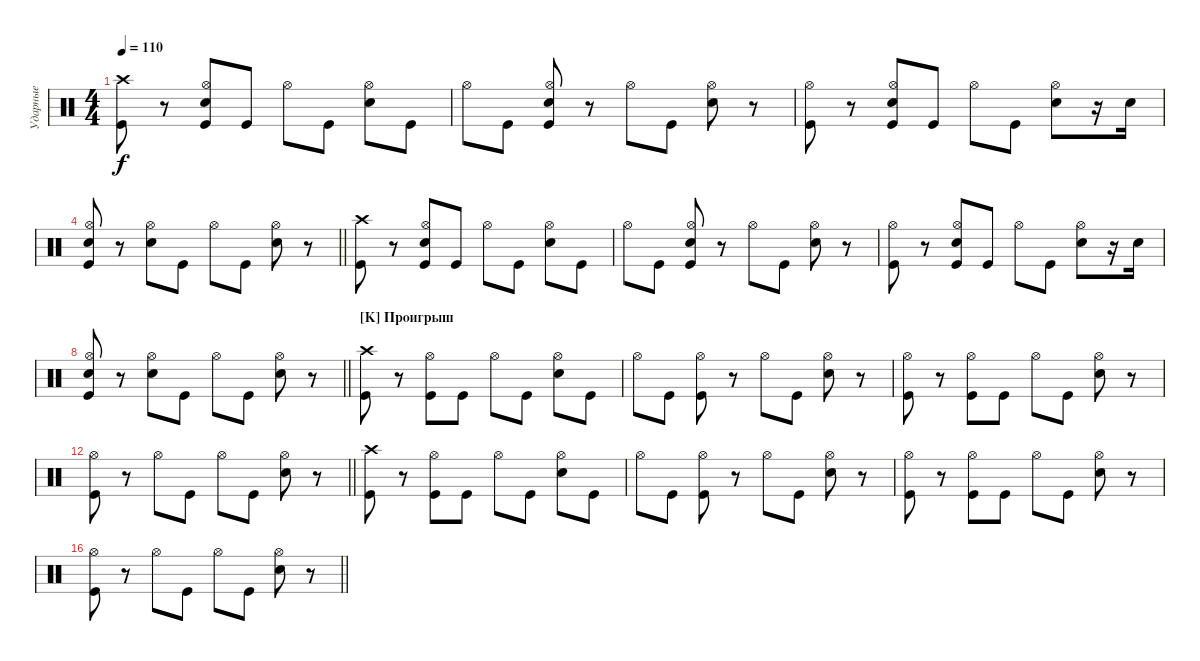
\bracketExtendMode groupsimilarinstruments
\multiTrackTrackNamePolicy hidden
\firstSystemTrackNameMode fullname
\otherSystemsTrackNameMode fullname
\otherSystemsTrackNameOrientation horizontal
\defaultBarNumberDisplay FirstOfSystem
\track ("Ударные" "Drums") {multiBarRest instrument percussion}
\staff {score}
\articulation defaults
\ts (4 4)
\tempo 110
\clef neutral
\ks c
("Crash high (hit)" "Kick (hit)").8{dy f} r.8 ("Hi-Hat (open)" "Snare (hit) 2" "Kick (hit)").8 "Kick (hit)".8 "Hi-Hat (open)".8 "Kick (hit)".8 ("Hi-Hat (open)" "Snare (hit) 2").8 "Kick (hit)".8 |
"Hi-Hat (open)".8 "Kick (hit)".8 ("Hi-Hat (open)" "Snare (hit) 2" "Kick (hit)").8 r.8 "Hi-Hat (open)".8 "Kick (hit)".8 ("Hi-Hat (open)" "Snare (hit) 2").8 r.8 |
("Hi-Hat (open)" "Kick (hit)").8 r.8 ("Hi-Hat (open)" "Snare (hit) 2" "Kick (hit)").8 "Kick (hit)".8 "Hi-Hat (open)".8 "Kick (hit)".8 ("Hi-Hat (open)" "Snare (hit) 2").8 r.16 "Snare (hit) 2".16 |
\barLineRight lightlight
("Hi-Hat (open)" "Snare (hit) 2" "Kick (hit)").8 r.8 ("Hi-Hat (open)" "Snare (hit) 2").8 "Kick (hit)".8 "Hi-Hat (open)".8 "Kick (hit)".8 ("Hi-Hat (open)" "Snare (hit) 2").8 r.8 |
("Crash high (hit)" "Kick (hit)").8 r.8 ("Hi-Hat (open)" "Snare (hit) 2" "Kick (hit)").8 "Kick (hit)".8 "Hi-Hat (open)".8 "Kick (hit)".8 ("Hi-Hat (open)" "Snare (hit) 2").8 "Kick (hit)".8 |
"Hi-Hat (open)".8 "Kick (hit)".8 ("Hi-Hat (open)" "Snare (hit) 2" "Kick (hit)").8 r.8 "Hi-Hat (open)".8 "Kick (hit)".8 ("Hi-Hat (open)" "Snare (hit) 2").8 r.8 |
("Hi-Hat (open)" "Kick (hit)").8 r.8 ("Hi-Hat (open)" "Snare (hit) 2" "Kick (hit)").8 "Kick (hit)".8 "Hi-Hat (open)".8 "Kick (hit)".8 ("Hi-Hat (open)" "Snare (hit) 2").8 r.16 "Snare (hit) 2".16 |
\barLineRight lightlight
("Hi-Hat (open)" "Snare (hit) 2" "Kick (hit)").8 r.8 ("Hi-Hat (open)" "Snare (hit) 2").8 "Kick (hit)".8 "Hi-Hat (open)".8 "Kick (hit)".8 ("Hi-Hat (open)" "Snare (hit) 2").8 r.8 |
\section ("K" "Проигрыш")
("Crash high (hit)" "Kick (hit)").8 r.8 ("Hi-Hat (open)" "Kick (hit)").8 "Kick (hit)".8 "Hi-Hat (open)".8 "Kick (hit)".8 ("Hi-Hat (open)" "Snare (hit) 2").8 "Kick (hit)".8 |
"Hi-Hat (open)".8 "Kick (hit)".8 ("Hi-Hat (open)" "Kick (hit)").8 r.8 "Hi-Hat (open)".8 "Kick (hit)".8 ("Hi-Hat (open)" "Snare (hit) 2").8 r.8 |
("Hi-Hat (open)" "Kick (hit)").8 r.8 ("Hi-Hat (open)" "Kick (hit)").8 "Kick (hit)".8 "Hi-Hat (open)".8 "Kick (hit)".8 ("Hi-Hat (open)" "Snare (hit) 2").8 r.8 |
\barLineRight lightlight
("Hi-Hat (open)" "Kick (hit)").8 r.8 "Hi-Hat (open)".8 "Kick (hit)".8 "Hi-Hat (open)".8 "Kick (hit)".8 ("Hi-Hat (open)" "Snare (hit) 2").8 r.8 |
("Crash high (hit)" "Kick (hit)").8 r.8 ("Hi-Hat (open)" "Kick (hit)").8 "Kick (hit)".8 "Hi-Hat (open)".8 "Kick (hit)".8 ("Hi-Hat (open)" "Snare (hit) 2").8 "Kick (hit)".8 |
"Hi-Hat (open)".8 "Kick (hit)".8 ("Hi-Hat (open)" "Kick (hit)").8 r.8 "Hi-Hat (open)".8 "Kick (hit)".8 ("Hi-Hat (open)" "Snare (hit) 2").8 r.8 |
("Hi-Hat (open)" "Kick (hit)").8 r.8 ("Hi-Hat (open)" "Kick (hit)").8 "Kick (hit)".8 "Hi-Hat (open)".8 "Kick (hit)".8 ("Hi-Hat (open)" "Snare (hit) 2").8 r.8 |
\barLineRight lightlight
("Hi-Hat (open)" "Kick (hit)").8 r.8 "Hi-Hat (open)".8 "Kick (hit)".8 "Hi-Hat (open)".8 "Kick (hit)".8 ("Hi-Hat (open)" "Snare (hit) 2").8 r.8
